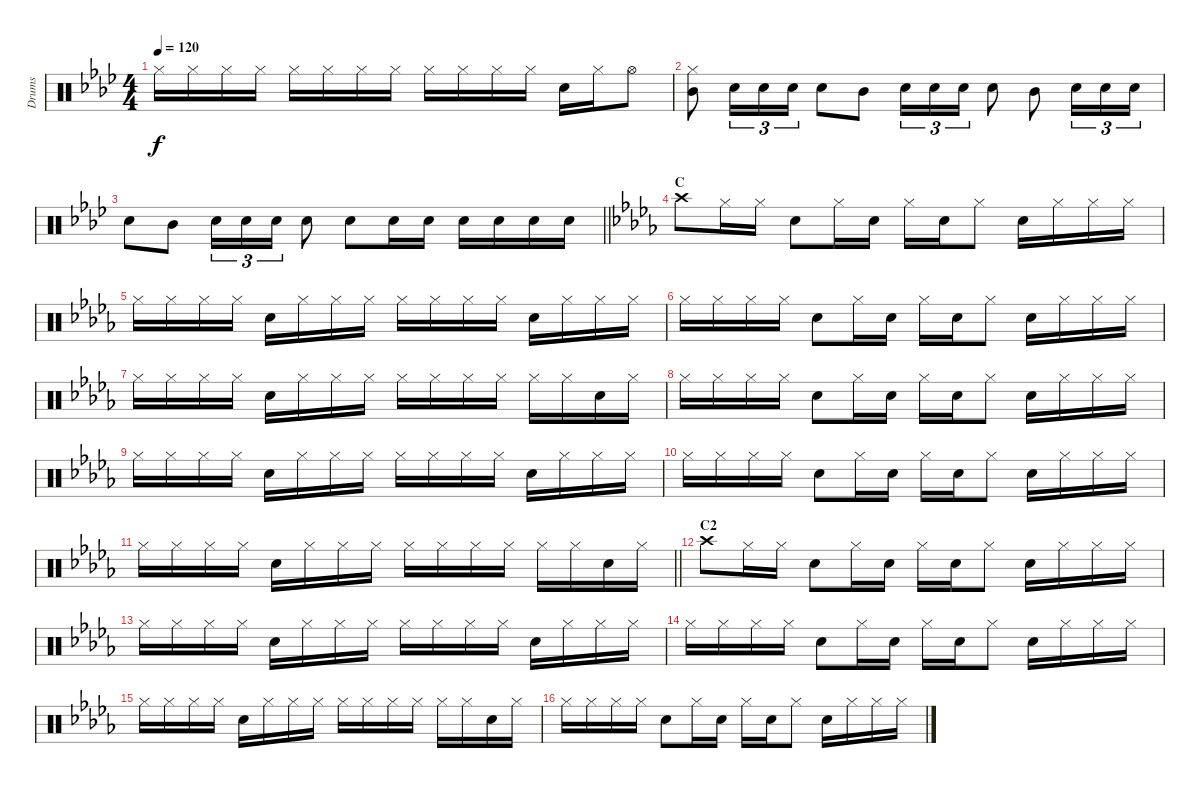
\track ("Drums" "Drums") {instrument percussion}
\staff {score}
\articulation defaults
\ts (4 4)
\tempo 120
\clef neutral
\ks ab "Hi-Hat (closed)".16{dy f} "Hi-Hat (closed)".16 "Hi-Hat (closed)".16 "Hi-Hat (closed)".16 "Hi-Hat (closed)".16 "Hi-Hat (closed)".16 "Hi-Hat (closed)".16 "Hi-Hat (closed)".16 "Hi-Hat (closed)".16 "Hi-Hat (closed)".16 "Hi-Hat (closed)".16 "Hi-Hat (closed)".16 "Snare (hit) 2".16 "Hi-Hat (closed)".16 "Hi-Hat (open)".8
|
("Hi-Hat (closed)" "Mid Tom (hit)").8 "Snare (hit) 2".16{tu (3 2)} "Snare (hit) 2".16{tu (3 2)} "Snare (hit) 2".16{tu (3 2)} "Snare (hit) 2".8 "Mid Tom (hit)".8 "Snare (hit) 2".16{tu (3 2)} "Snare (hit) 2".16{tu (3 2)} "Snare (hit) 2".16{tu (3 2)} "Snare (hit) 2".8 "Mid Tom (hit)".8 "Snare (hit) 2".16{tu (3 2)} "Snare (hit) 2".16{tu (3 2)} "Snare (hit) 2".16{tu (3 2)} |
\barLineRight lightlight "Snare (hit) 2".8 "Mid Tom (hit)".8 "Snare (hit) 2".16{tu (3 2)} "Snare (hit) 2".16{tu (3 2)} "Snare (hit) 2".16{tu (3 2)} "Snare (hit) 2".8 "Snare (hit) 2".8 "Snare (hit) 2".16 "Snare (hit) 2".16 "Snare (hit) 2".16 "Snare (hit) 2".16 "Snare (hit) 2".16 "Snare (hit) 2".16
|
\section ("" "C")
\ks db "Crash high (hit)".8 "Hi-Hat (closed)".16 "Hi-Hat (closed)".16 "Snare (hit) 2".8 "Hi-Hat (closed)".16 "Snare (hit) 2".16 "Hi-Hat (closed)".16 "Snare (hit) 2".16 "Hi-Hat (closed)".8 "Snare (hit) 2".16 "Hi-Hat (closed)".16 "Hi-Hat (closed)".16 "Hi-Hat (closed)".16
|
"Hi-Hat (closed)".16 "Hi-Hat (closed)".16 "Hi-Hat (closed)".16 "Hi-Hat (closed)".16 "Snare (hit) 2".16 "Hi-Hat (closed)".16 "Hi-Hat (closed)".16 "Hi-Hat (closed)".16 "Hi-Hat (closed)".16 "Hi-Hat (closed)".16 "Hi-Hat (closed)".16 "Hi-Hat (closed)".16 "Snare (hit) 2".16 "Hi-Hat (closed)".16 "Hi-Hat (closed)".16 "Hi-Hat (closed)".16 |
"Hi-Hat (closed)".16 "Hi-Hat (closed)".16 "Hi-Hat (closed)".16 "Hi-Hat (closed)".16 "Snare (hit) 2".8 "Hi-Hat (closed)".16 "Snare (hit) 2".16 "Hi-Hat (closed)".16 "Snare (hit) 2".16 "Hi-Hat (closed)".8 "Snare (hit) 2".16 "Hi-Hat (closed)".16 "Hi-Hat (closed)".16 "Hi-Hat (closed)".16 |
"Hi-Hat (closed)".16 "Hi-Hat (closed)".16 "Hi-Hat (closed)".16 "Hi-Hat (closed)".16 "Snare (hit) 2".16 "Hi-Hat (closed)".16 "Hi-Hat (closed)".16 "Hi-Hat (closed)".16 "Hi-Hat (closed)".16 "Hi-Hat (closed)".16 "Hi-Hat (closed)".16 "Hi-Hat (closed)".16 "Hi-Hat (closed)".16 "Hi-Hat (closed)".16 "Snare (hit) 2".16 "Hi-Hat (closed)".16 |
"Hi-Hat (closed)".16 "Hi-Hat (closed)".16 "Hi-Hat (closed)".16 "Hi-Hat (closed)".16 "Snare (hit) 2".8 "Hi-Hat (closed)".16 "Snare (hit) 2".16 "Hi-Hat (closed)".16 "Snare (hit) 2".16 "Hi-Hat (closed)".8 "Snare (hit) 2".16 "Hi-Hat (closed)".16 "Hi-Hat (closed)".16 "Hi-Hat (closed)".16 |
"Hi-Hat (closed)".16 "Hi-Hat (closed)".16 "Hi-Hat (closed)".16 "Hi-Hat (closed)".16 "Snare (hit) 2".16 "Hi-Hat (closed)".16 "Hi-Hat (closed)".16 "Hi-Hat (closed)".16 "Hi-Hat (closed)".16 "Hi-Hat (closed)".16 "Hi-Hat (closed)".16 "Hi-Hat (closed)".16 "Snare (hit) 2".16 "Hi-Hat (closed)".16 "Hi-Hat (closed)".16 "Hi-Hat (closed)".16 |
"Hi-Hat (closed)".16 "Hi-Hat (closed)".16 "Hi-Hat (closed)".16 "Hi-Hat (closed)".16 "Snare (hit) 2".8 "Hi-Hat (closed)".16 "Snare (hit) 2".16 "Hi-Hat (closed)".16 "Snare (hit) 2".16 "Hi-Hat (closed)".8 "Snare (hit) 2".16 "Hi-Hat (closed)".16 "Hi-Hat (closed)".16 "Hi-Hat (closed)".16 |
\barLineRight lightlight "Hi-Hat (closed)".16 "Hi-Hat (closed)".16 "Hi-Hat (closed)".16 "Hi-Hat (closed)".16 "Snare (hit) 2".16 "Hi-Hat (closed)".16 "Hi-Hat (closed)".16 "Hi-Hat (closed)".16 "Hi-Hat (closed)".16 "Hi-Hat (closed)".16 "Hi-Hat (closed)".16 "Hi-Hat (closed)".16 "Hi-Hat (closed)".16 "Hi-Hat (closed)".16 "Snare (hit) 2".16 "Hi-Hat (closed)".16
|
\section ("" "C2")
"Crash high (hit)".8 "Hi-Hat (closed)".16 "Hi-Hat (closed)".16 "Snare (hit) 2".8 "Hi-Hat (closed)".16 "Snare (hit) 2".16 "Hi-Hat (closed)".16 "Snare (hit) 2".16 "Hi-Hat (closed)".8 "Snare (hit) 2".16 "Hi-Hat (closed)".16 "Hi-Hat (closed)".16 "Hi-Hat (closed)".16 |
"Hi-Hat (closed)".16 "Hi-Hat (closed)".16 "Hi-Hat (closed)".16 "Hi-Hat (closed)".16 "Snare (hit) 2".16 "Hi-Hat (closed)".16 "Hi-Hat (closed)".16 "Hi-Hat (closed)".16 "Hi-Hat (closed)".16 "Hi-Hat (closed)".16 "Hi-Hat (closed)".16 "Hi-Hat (closed)".16 "Snare (hit) 2".16 "Hi-Hat (closed)".16 "Hi-Hat (closed)".16 "Hi-Hat (closed)".16 |
"Hi-Hat (closed)".16 "Hi-Hat (closed)".16 "Hi-Hat (closed)".16 "Hi-Hat (closed)".16 "Snare (hit) 2".8 "Hi-Hat (closed)".16 "Snare (hit) 2".16 "Hi-Hat (closed)".16 "Snare (hit) 2".16 "Hi-Hat (closed)".8 "Snare (hit) 2".16 "Hi-Hat (closed)".16 "Hi-Hat (closed)".16 "Hi-Hat (closed)".16 |
"Hi-Hat (closed)".16 "Hi-Hat (closed)".16 "Hi-Hat (closed)".16 "Hi-Hat (closed)".16 "Snare (hit) 2".16 "Hi-Hat (closed)".16 "Hi-Hat (closed)".16 "Hi-Hat (closed)".16 "Hi-Hat (closed)".16 "Hi-Hat (closed)".16 "Hi-Hat (closed)".16 "Hi-Hat (closed)".16 "Hi-Hat (closed)".16 "Hi-Hat (closed)".16 "Snare (hit) 2".16 "Hi-Hat (closed)".16 |
"Hi-Hat (closed)".16 "Hi-Hat (closed)".16 "Hi-Hat (closed)".16 "Hi-Hat (closed)".16 "Snare (hit) 2".8 "Hi-Hat (closed)".16 "Snare (hit) 2".16 "Hi-Hat (closed)".16 "Snare (hit) 2".16 "Hi-Hat (closed)".8 "Snare (hit) 2".16 "Hi-Hat (closed)".16 "Hi-Hat (closed)".16 "Hi-Hat (closed)".16
